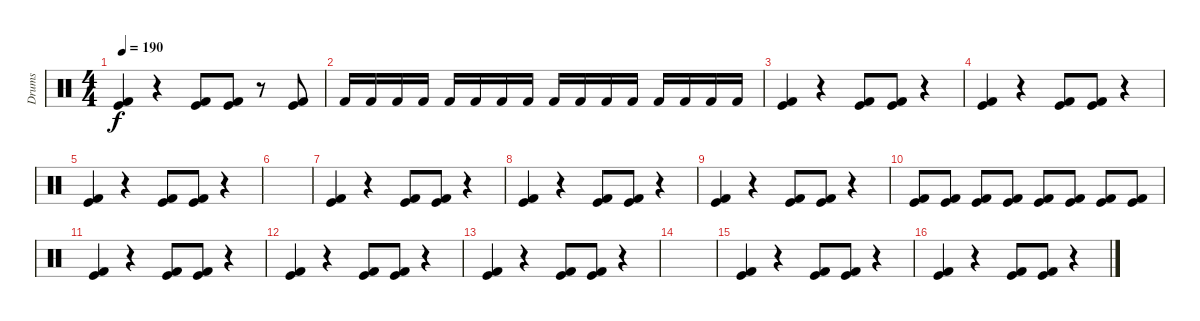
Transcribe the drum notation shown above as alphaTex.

\track ("Drums" "Drums") {instrument percussion}
\staff {score}
\articulation defaults
\ts (4 4)
\tempo 190
\clef neutral
\ks c
("Kick (hit) 2" "Kick (hit)").4{dy f} r.4 ("Kick (hit) 2" "Kick (hit)").8 ("Kick (hit) 2" "Kick (hit)").8 r.8 ("Kick (hit) 2" "Kick (hit)").8 |
"Kick (hit) 2".16 "Kick (hit) 2".16 "Kick (hit) 2".16 "Kick (hit) 2".16 "Kick (hit) 2".16 "Kick (hit) 2".16 "Kick (hit) 2".16 "Kick (hit) 2".16 "Kick (hit) 2".16 "Kick (hit) 2".16 "Kick (hit) 2".16 "Kick (hit) 2".16 "Kick (hit) 2".16 "Kick (hit) 2".16 "Kick (hit) 2".16 "Kick (hit) 2".16 |
("Kick (hit) 2" "Kick (hit)").4 r.4 ("Kick (hit) 2" "Kick (hit)").8 ("Kick (hit) 2" "Kick (hit)").8 r.4 |
("Kick (hit) 2" "Kick (hit)").4 r.4 ("Kick (hit) 2" "Kick (hit)").8 ("Kick (hit) 2" "Kick (hit)").8 r.4 |
("Kick (hit) 2" "Kick (hit)").4 r.4 ("Kick (hit) 2" "Kick (hit)").8 ("Kick (hit) 2" "Kick (hit)").8 r.4 |
|
("Kick (hit) 2" "Kick (hit)").4 r.4 ("Kick (hit) 2" "Kick (hit)").8 ("Kick (hit) 2" "Kick (hit)").8 r.4 |
("Kick (hit) 2" "Kick (hit)").4 r.4 ("Kick (hit) 2" "Kick (hit)").8 ("Kick (hit) 2" "Kick (hit)").8 r.4 |
("Kick (hit) 2" "Kick (hit)").4 r.4 ("Kick (hit) 2" "Kick (hit)").8 ("Kick (hit) 2" "Kick (hit)").8 r.4 |
("Kick (hit) 2" "Kick (hit)").8 ("Kick (hit) 2" "Kick (hit)").8 ("Kick (hit) 2" "Kick (hit)").8 ("Kick (hit) 2" "Kick (hit)").8 ("Kick (hit) 2" "Kick (hit)").8 ("Kick (hit) 2" "Kick (hit)").8 ("Kick (hit) 2" "Kick (hit)").8 ("Kick (hit) 2" "Kick (hit)").8 |
("Kick (hit) 2" "Kick (hit)").4 r.4 ("Kick (hit) 2" "Kick (hit)").8 ("Kick (hit) 2" "Kick (hit)").8 r.4 |
("Kick (hit) 2" "Kick (hit)").4 r.4 ("Kick (hit) 2" "Kick (hit)").8 ("Kick (hit) 2" "Kick (hit)").8 r.4 |
("Kick (hit) 2" "Kick (hit)").4 r.4 ("Kick (hit) 2" "Kick (hit)").8 ("Kick (hit) 2" "Kick (hit)").8 r.4 |
|
("Kick (hit) 2" "Kick (hit)").4 r.4 ("Kick (hit) 2" "Kick (hit)").8 ("Kick (hit) 2" "Kick (hit)").8 r.4 |
("Kick (hit) 2" "Kick (hit)").4 r.4 ("Kick (hit) 2" "Kick (hit)").8 ("Kick (hit) 2" "Kick (hit)").8 r.4
